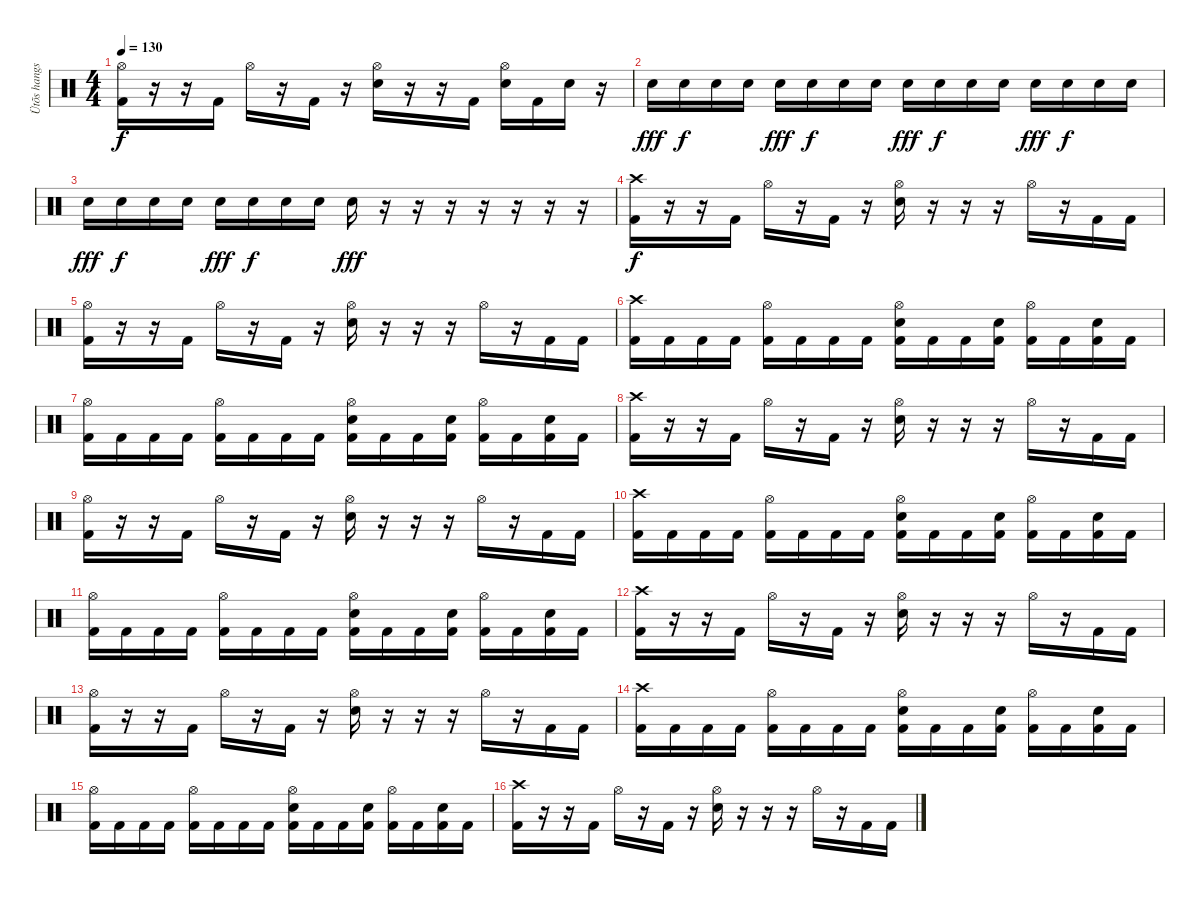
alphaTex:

\track ("Ütõs hangszer" "Ütõs hangs") {instrument percussion}
\staff {score}
\articulation defaults
\ts (4 4)
\tempo 130
\clef neutral
\ks c
("Hi-Hat (open)" "Kick (hit) 2").16{dy f} r.16 r.16 "Kick (hit) 2".16 "Hi-Hat (open)".16 r.16 "Kick (hit) 2".16 r.16 ("Hi-Hat (open)" "Snare (hit) 2").16 r.16 r.16 "Kick (hit) 2".16 ("Hi-Hat (open)" "Snare (hit) 2").16 "Kick (hit) 2".16 "Snare (hit) 2".16 r.16 |
"Snare (hit) 2".16{dy fff} "Snare (hit) 2".16{dy f} "Snare (hit) 2".16 "Snare (hit) 2".16 "Snare (hit) 2".16{dy fff} "Snare (hit) 2".16{dy f} "Snare (hit) 2".16 "Snare (hit) 2".16 "Snare (hit) 2".16{dy fff} "Snare (hit) 2".16{dy f} "Snare (hit) 2".16 "Snare (hit) 2".16 "Snare (hit) 2".16{dy fff} "Snare (hit) 2".16{dy f} "Snare (hit) 2".16 "Snare (hit) 2".16 |
"Snare (hit) 2".16{dy fff} "Snare (hit) 2".16{dy f} "Snare (hit) 2".16 "Snare (hit) 2".16 "Snare (hit) 2".16{dy fff} "Snare (hit) 2".16{dy f} "Snare (hit) 2".16 "Snare (hit) 2".16 "Snare (hit) 2".16{dy fff} r.16 r.16 r.16 r.16 r.16 r.16 r.16 |
("Crash high (hit)" "Kick (hit) 2").16{dy f} r.16 r.16 "Kick (hit) 2".16 "Hi-Hat (open)".16 r.16 "Kick (hit) 2".16 r.16 ("Hi-Hat (open)" "Snare (hit) 2").16 r.16 r.16 r.16 "Hi-Hat (open)".16 r.16 "Kick (hit) 2".16 "Kick (hit) 2".16 |
("Hi-Hat (open)" "Kick (hit) 2").16 r.16 r.16 "Kick (hit) 2".16 "Hi-Hat (open)".16 r.16 "Kick (hit) 2".16 r.16 ("Hi-Hat (open)" "Snare (hit) 2").16 r.16 r.16 r.16 "Hi-Hat (open)".16 r.16 "Kick (hit) 2".16 "Kick (hit) 2".16 |
("Crash high (hit)" "Kick (hit) 2").16 "Kick (hit) 2".16 "Kick (hit) 2".16 "Kick (hit) 2".16 ("Hi-Hat (open)" "Kick (hit) 2").16 "Kick (hit) 2".16 "Kick (hit) 2".16 "Kick (hit) 2".16 ("Hi-Hat (open)" "Snare (hit) 2" "Kick (hit) 2").16 "Kick (hit) 2".16 "Kick (hit) 2".16 ("Snare (hit) 2" "Kick (hit) 2").16 ("Hi-Hat (open)" "Kick (hit) 2").16 "Kick (hit) 2".16 ("Snare (hit) 2" "Kick (hit) 2").16 "Kick (hit) 2".16 |
("Hi-Hat (open)" "Kick (hit) 2").16 "Kick (hit) 2".16 "Kick (hit) 2".16 "Kick (hit) 2".16 ("Hi-Hat (open)" "Kick (hit) 2").16 "Kick (hit) 2".16 "Kick (hit) 2".16 "Kick (hit) 2".16 ("Hi-Hat (open)" "Snare (hit) 2" "Kick (hit) 2").16 "Kick (hit) 2".16 "Kick (hit) 2".16 ("Snare (hit) 2" "Kick (hit) 2").16 ("Hi-Hat (open)" "Kick (hit) 2").16 "Kick (hit) 2".16 ("Snare (hit) 2" "Kick (hit) 2").16 "Kick (hit) 2".16 |
("Crash high (hit)" "Kick (hit) 2").16 r.16 r.16 "Kick (hit) 2".16 "Hi-Hat (open)".16 r.16 "Kick (hit) 2".16 r.16 ("Hi-Hat (open)" "Snare (hit) 2").16 r.16 r.16 r.16 "Hi-Hat (open)".16 r.16 "Kick (hit) 2".16 "Kick (hit) 2".16 |
("Hi-Hat (open)" "Kick (hit) 2").16 r.16 r.16 "Kick (hit) 2".16 "Hi-Hat (open)".16 r.16 "Kick (hit) 2".16 r.16 ("Hi-Hat (open)" "Snare (hit) 2").16 r.16 r.16 r.16 "Hi-Hat (open)".16 r.16 "Kick (hit) 2".16 "Kick (hit) 2".16 |
("Crash high (hit)" "Kick (hit) 2").16 "Kick (hit) 2".16 "Kick (hit) 2".16 "Kick (hit) 2".16 ("Hi-Hat (open)" "Kick (hit) 2").16 "Kick (hit) 2".16 "Kick (hit) 2".16 "Kick (hit) 2".16 ("Hi-Hat (open)" "Snare (hit) 2" "Kick (hit) 2").16 "Kick (hit) 2".16 "Kick (hit) 2".16 ("Snare (hit) 2" "Kick (hit) 2").16 ("Hi-Hat (open)" "Kick (hit) 2").16 "Kick (hit) 2".16 ("Snare (hit) 2" "Kick (hit) 2").16 "Kick (hit) 2".16 |
("Hi-Hat (open)" "Kick (hit) 2").16 "Kick (hit) 2".16 "Kick (hit) 2".16 "Kick (hit) 2".16 ("Hi-Hat (open)" "Kick (hit) 2").16 "Kick (hit) 2".16 "Kick (hit) 2".16 "Kick (hit) 2".16 ("Hi-Hat (open)" "Snare (hit) 2" "Kick (hit) 2").16 "Kick (hit) 2".16 "Kick (hit) 2".16 ("Snare (hit) 2" "Kick (hit) 2").16 ("Hi-Hat (open)" "Kick (hit) 2").16 "Kick (hit) 2".16 ("Snare (hit) 2" "Kick (hit) 2").16 "Kick (hit) 2".16 |
("Crash high (hit)" "Kick (hit) 2").16 r.16 r.16 "Kick (hit) 2".16 "Hi-Hat (open)".16 r.16 "Kick (hit) 2".16 r.16 ("Hi-Hat (open)" "Snare (hit) 2").16 r.16 r.16 r.16 "Hi-Hat (open)".16 r.16 "Kick (hit) 2".16 "Kick (hit) 2".16 |
("Hi-Hat (open)" "Kick (hit) 2").16 r.16 r.16 "Kick (hit) 2".16 "Hi-Hat (open)".16 r.16 "Kick (hit) 2".16 r.16 ("Hi-Hat (open)" "Snare (hit) 2").16 r.16 r.16 r.16 "Hi-Hat (open)".16 r.16 "Kick (hit) 2".16 "Kick (hit) 2".16 |
("Crash high (hit)" "Kick (hit) 2").16 "Kick (hit) 2".16 "Kick (hit) 2".16 "Kick (hit) 2".16 ("Hi-Hat (open)" "Kick (hit) 2").16 "Kick (hit) 2".16 "Kick (hit) 2".16 "Kick (hit) 2".16 ("Hi-Hat (open)" "Snare (hit) 2" "Kick (hit) 2").16 "Kick (hit) 2".16 "Kick (hit) 2".16 ("Snare (hit) 2" "Kick (hit) 2").16 ("Hi-Hat (open)" "Kick (hit) 2").16 "Kick (hit) 2".16 ("Snare (hit) 2" "Kick (hit) 2").16 "Kick (hit) 2".16 |
("Hi-Hat (open)" "Kick (hit) 2").16 "Kick (hit) 2".16 "Kick (hit) 2".16 "Kick (hit) 2".16 ("Hi-Hat (open)" "Kick (hit) 2").16 "Kick (hit) 2".16 "Kick (hit) 2".16 "Kick (hit) 2".16 ("Hi-Hat (open)" "Snare (hit) 2" "Kick (hit) 2").16 "Kick (hit) 2".16 "Kick (hit) 2".16 ("Snare (hit) 2" "Kick (hit) 2").16 ("Hi-Hat (open)" "Kick (hit) 2").16 "Kick (hit) 2".16 ("Snare (hit) 2" "Kick (hit) 2").16 "Kick (hit) 2".16 |
("Crash high (hit)" "Kick (hit) 2").16 r.16 r.16 "Kick (hit) 2".16 "Hi-Hat (open)".16 r.16 "Kick (hit) 2".16 r.16 ("Hi-Hat (open)" "Snare (hit) 2").16 r.16 r.16 r.16 "Hi-Hat (open)".16 r.16 "Kick (hit) 2".16 "Kick (hit) 2".16
